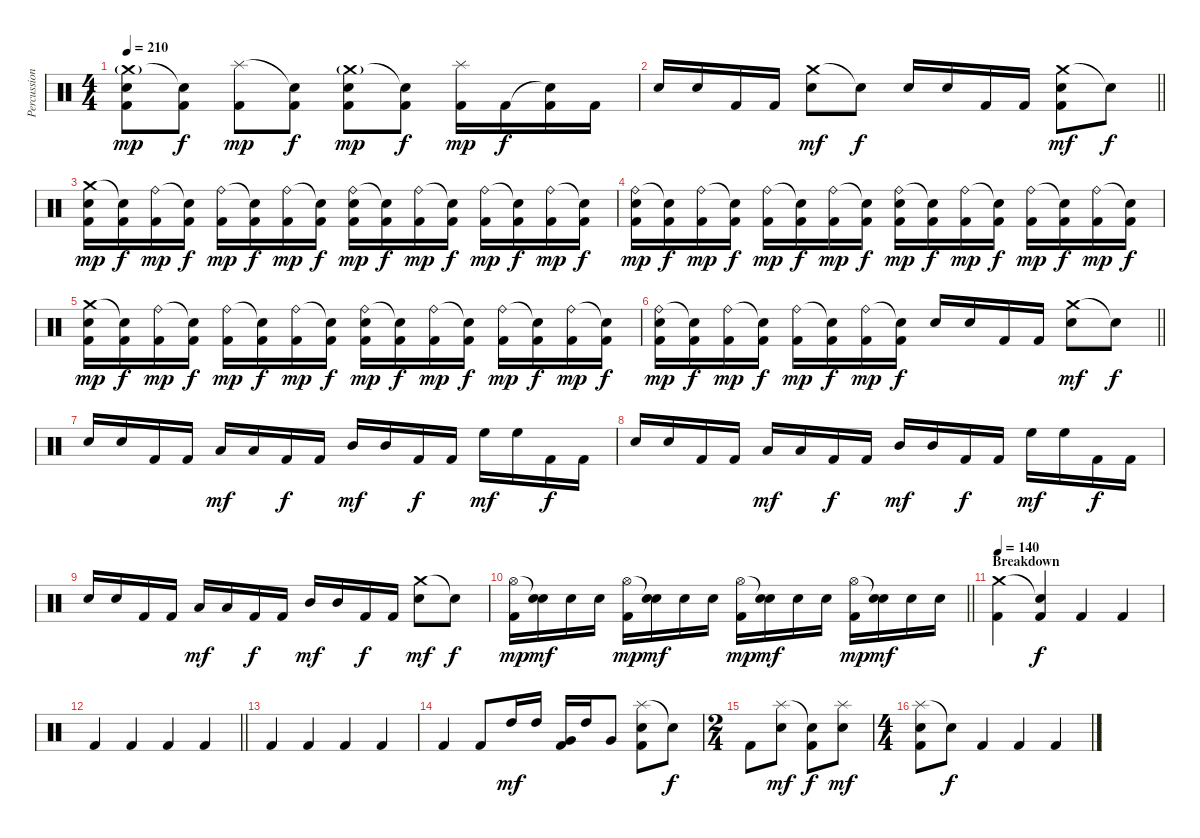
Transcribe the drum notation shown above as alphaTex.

\track ("Percussion" "Percussion") {instrument percussion}
\staff {score}
\articulation defaults
\ts (4 4)
\tempo 210
\clef neutral
\ks c
("Crash medium (hit)"{g} "Electric Snare (hit)" "Kick (hit) 2").8{dy mp} ("Snare (hit)"{t} "Kick (hit) 2").8{dy f} ("Splash (hit)" "Kick (hit) 2").8{dy mp} ("Snare (hit)"{t} "Kick (hit) 2").8{dy f} ("Crash medium (hit)"{g} "Electric Snare (hit)" "Kick (hit) 2").8{dy mp} ("Snare (hit)"{t} "Kick (hit) 2").8{dy f} ("Splash (hit)" "Kick (hit) 2").16{dy mp} "Kick (hit) 2".16{dy f} ("Snare (hit)"{t} "Kick (hit) 2").16 "Kick (hit) 2".16 |
\barLineRight lightlight "Electric Snare (hit)".16 "Electric Snare (hit)".16 "Kick (hit) 2".16 "Kick (hit) 2".16
("Crash medium (hit)" "Electric Snare (hit)").8{dy mf} "Snare (hit)"{t}.8{dy f} "Electric Snare (hit)".16 "Electric Snare (hit)".16 "Kick (hit) 2".16 "Kick (hit) 2".16 ("Crash medium (hit)" "Electric Snare (hit)" "Kick (hit) 2").8{dy mf} "Snare (hit)"{t}.8{dy f} |
("Crash medium (hit)" "Electric Snare (hit)" "Kick (hit) 2").16{dy mp} ("Snare (hit)"{t} "Kick (hit) 2").16{dy f} ("Ride (bell)" "Kick (hit) 2").16{dy mp} ("Snare (hit)"{t} "Kick (hit) 2").16{dy f} ("Ride (bell)" "Kick (hit) 2").16{dy mp} ("Snare (hit)"{t} "Kick (hit) 2").16{dy f} ("Ride (bell)" "Kick (hit) 2").16{dy mp} ("Snare (hit)"{t} "Kick (hit) 2").16{dy f} ("Ride (bell)" "Electric Snare (hit)" "Kick (hit) 2").16{dy mp} ("Snare (hit)"{t} "Kick (hit) 2").16{dy f} ("Ride (bell)" "Kick (hit) 2").16{dy mp} ("Snare (hit)"{t} "Kick (hit) 2").16{dy f} ("Ride (bell)" "Kick (hit) 2").16{dy mp} ("Snare (hit)"{t} "Kick (hit) 2").16{dy f} ("Ride (bell)" "Kick (hit) 2").16{dy mp} ("Snare (hit)"{t} "Kick (hit) 2").16{dy f} |
("Ride (bell)" "Electric Snare (hit)" "Kick (hit) 2").16{dy mp} ("Snare (hit)"{t} "Kick (hit) 2").16{dy f} ("Ride (bell)" "Kick (hit) 2").16{dy mp} ("Snare (hit)"{t} "Kick (hit) 2").16{dy f} ("Ride (bell)" "Kick (hit) 2").16{dy mp} ("Snare (hit)"{t} "Kick (hit) 2").16{dy f} ("Ride (bell)" "Kick (hit) 2").16{dy mp} ("Snare (hit)"{t} "Kick (hit) 2").16{dy f} ("Ride (bell)" "Electric Snare (hit)" "Kick (hit) 2").16{dy mp} ("Snare (hit)"{t} "Kick (hit) 2").16{dy f} ("Ride (bell)" "Kick (hit) 2").16{dy mp} ("Snare (hit)"{t} "Kick (hit) 2").16{dy f} ("Ride (bell)" "Kick (hit) 2").16{dy mp} ("Snare (hit)"{t} "Kick (hit) 2").16{dy f} ("Ride (bell)" "Kick (hit) 2").16{dy mp} ("Snare (hit)"{t} "Kick (hit) 2").16{dy f} |
("Crash medium (hit)" "Electric Snare (hit)" "Kick (hit) 2").16{dy mp} ("Snare (hit)"{t} "Kick (hit) 2").16{dy f} ("Ride (bell)" "Kick (hit) 2").16{dy mp} ("Snare (hit)"{t} "Kick (hit) 2").16{dy f} ("Ride (bell)" "Kick (hit) 2").16{dy mp} ("Snare (hit)"{t} "Kick (hit) 2").16{dy f} ("Ride (bell)" "Kick (hit) 2").16{dy mp} ("Snare (hit)"{t} "Kick (hit) 2").16{dy f} ("Ride (bell)" "Electric Snare (hit)" "Kick (hit) 2").16{dy mp} ("Snare (hit)"{t} "Kick (hit) 2").16{dy f} ("Ride (bell)" "Kick (hit) 2").16{dy mp} ("Snare (hit)"{t} "Kick (hit) 2").16{dy f} ("Ride (bell)" "Kick (hit) 2").16{dy mp} ("Snare (hit)"{t} "Kick (hit) 2").16{dy f} ("Ride (bell)" "Kick (hit) 2").16{dy mp} ("Snare (hit)"{t} "Kick (hit) 2").16{dy f} |
\barLineRight lightlight
("Ride (bell)" "Electric Snare (hit)" "Kick (hit) 2").16{dy mp} ("Snare (hit)"{t} "Kick (hit) 2").16{dy f} ("Ride (bell)" "Kick (hit) 2").16{dy mp} ("Snare (hit)"{t} "Kick (hit) 2").16{dy f} ("Ride (bell)" "Kick (hit) 2").16{dy mp} ("Snare (hit)"{t} "Kick (hit) 2").16{dy f} ("Ride (bell)" "Kick (hit) 2").16{dy mp} ("Snare (hit)"{t} "Kick (hit) 2").16{dy f} "Electric Snare (hit)".16 "Electric Snare (hit)".16 "Kick (hit) 2".16 "Kick (hit) 2".16 ("Crash medium (hit)" "Electric Snare (hit)").8{dy mf} "Snare (hit)"{t}.8{dy f} |
"Electric Snare (hit)".16 "Electric Snare (hit)".16 "Kick (hit) 2".16 "Kick (hit) 2".16 "Low Tom (hit)".16{dy mf} "Low Tom (hit)".16 "Kick (hit) 2".16{dy f} "Kick (hit) 2".16 "Mid Tom (hit)".16{dy mf} "Mid Tom (hit)".16 "Kick (hit) 2".16{dy f} "Kick (hit) 2".16 "High Floor Tom (hit)".16{dy mf} "High Floor Tom (hit)".16 "Kick (hit) 2".16{dy f} "Kick (hit) 2".16 |
"Electric Snare (hit)".16 "Electric Snare (hit)".16 "Kick (hit) 2".16 "Kick (hit) 2".16 "Low Tom (hit)".16{dy mf} "Low Tom (hit)".16 "Kick (hit) 2".16{dy f} "Kick (hit) 2".16 "Mid Tom (hit)".16{dy mf} "Mid Tom (hit)".16 "Kick (hit) 2".16{dy f} "Kick (hit) 2".16 "High Floor Tom (hit)".16{dy mf} "High Floor Tom (hit)".16 "Kick (hit) 2".16{dy f} "Kick (hit) 2".16 |
"Electric Snare (hit)".16 "Electric Snare (hit)".16 "Kick (hit) 2".16 "Kick (hit) 2".16 "Low Tom (hit)".16{dy mf} "Low Tom (hit)".16 "Kick (hit) 2".16{dy f} "Kick (hit) 2".16 "Mid Tom (hit)".16{dy mf} "Mid Tom (hit)".16 "Kick (hit) 2".16{dy f} "Kick (hit) 2".16 ("Crash medium (hit)" "Electric Snare (hit)").8{dy mf} "Snare (hit)"{t}.8{dy f} |
\barLineRight lightlight
("Hi-Hat (open)" "Kick (hit) 2").16{dy mp} ("Snare (hit)"{t} "Electric Snare (hit)").16{dy mf} "Electric Snare (hit)".16 "Electric Snare (hit)".16 ("Hi-Hat (open)" "Kick (hit) 2").16{dy mp} ("Snare (hit)"{t} "Electric Snare (hit)").16{dy mf} "Electric Snare (hit)".16 "Electric Snare (hit)".16 ("Hi-Hat (open)" "Kick (hit) 2").16{dy mp} ("Snare (hit)"{t} "Electric Snare (hit)").16{dy mf} "Electric Snare (hit)".16 "Electric Snare (hit)".16 ("Hi-Hat (open)" "Kick (hit) 2").16{dy mp} ("Snare (hit)"{t} "Electric Snare (hit)").16{dy mf} "Electric Snare (hit)".16 "Electric Snare (hit)".16 |
\section ("" "Breakdown")
\tempo 140
("Crash medium (hit)" "Kick (hit) 2").4 ("Snare (hit)"{t} "Kick (hit) 2").4{dy f} "Kick (hit) 2".4 "Kick (hit) 2".4 |
\barLineRight lightlight "Kick (hit) 2".4 "Kick (hit) 2".4 "Kick (hit) 2".4 "Kick (hit) 2".4
|
"Kick (hit) 2".4 "Kick (hit) 2".4 "Kick (hit) 2".4 "Kick (hit) 2".4 |
"Kick (hit) 2".4 "Kick (hit) 2".8 "High Tom (hit)".16{dy mf} "High Tom (hit)".16 ("Very Low Tom (hit)" "Kick (hit) 2").16 "High Tom (hit)".16 "Very Low Tom (hit)".8 ("Splash (hit)" "Electric Snare (hit)" "Kick (hit) 2").8 "Snare (hit)"{t}.8{dy f} |
\ts (2 4)
"Kick (hit) 2".8 ("Splash (hit)" "Electric Snare (hit)").8{dy mf} ("Snare (hit)"{t} "Kick (hit) 2").8{dy f} ("Splash (hit)" "Electric Snare (hit)").8{dy mf} |
\ts (4 4)
("Splash (hit)" "Electric Snare (hit)" "Kick (hit) 2").8 "Snare (hit)"{t}.8{dy f} "Kick (hit) 2".4 "Kick (hit) 2".4 "Kick (hit) 2".4
